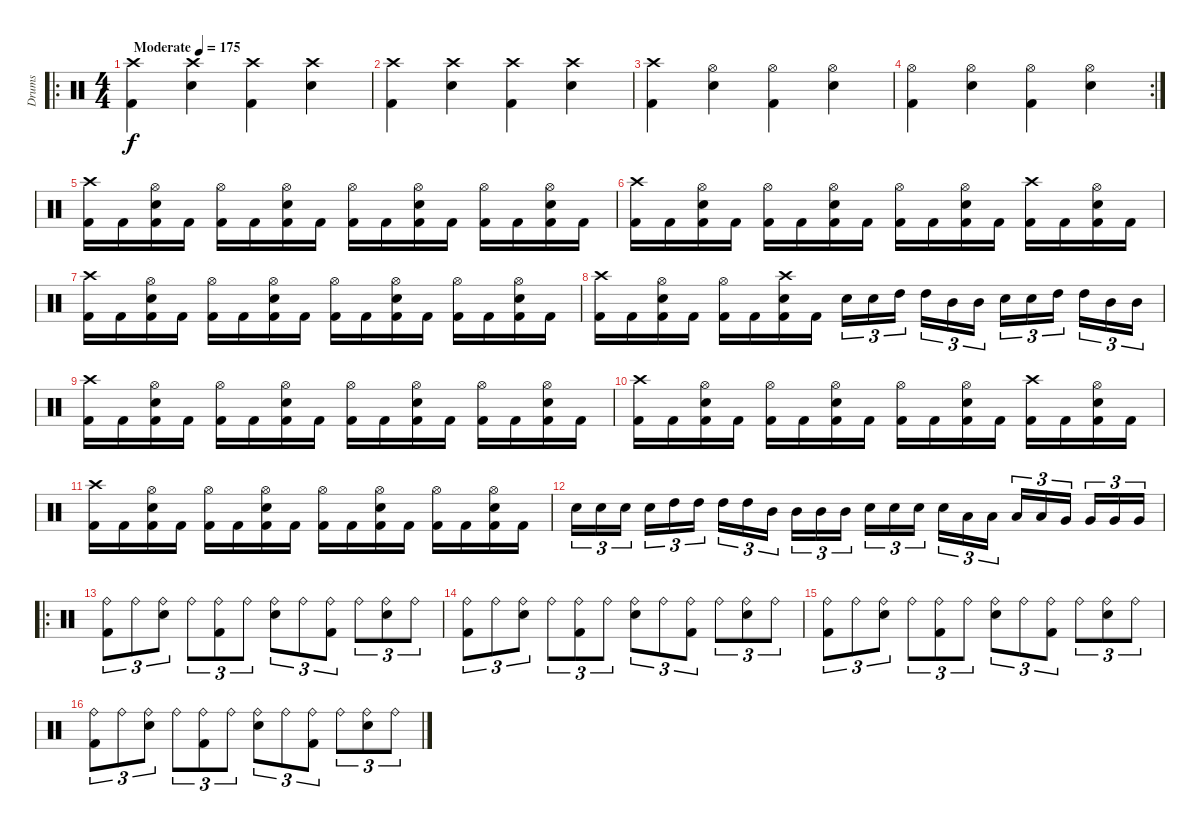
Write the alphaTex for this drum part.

\track ("Drums" "Drums") {instrument percussion}
\staff {score}
\articulation defaults
\ro
\ts (4 4)
\tempo (175 "Moderate")
\clef neutral
\ks c
("Kick (hit) 2" "Crash high (hit)").4{dy f} ("Snare (hit) 2" "Crash high (hit)").4 ("Kick (hit) 2" "Crash high (hit)").4 ("Snare (hit) 2" "Crash high (hit)").4 |
("Kick (hit) 2" "Crash high (hit)").4 ("Snare (hit) 2" "Crash high (hit)").4 ("Kick (hit) 2" "Crash high (hit)").4 ("Snare (hit) 2" "Crash high (hit)").4 |
("Kick (hit) 2" "Crash high (hit)").4 ("Snare (hit) 2" "Hi-Hat (open)").4 ("Kick (hit) 2" "Hi-Hat (open)").4 ("Snare (hit) 2" "Hi-Hat (open)").4 |
\rc 2
("Kick (hit) 2" "Hi-Hat (open)").4 ("Snare (hit) 2" "Hi-Hat (open)").4 ("Kick (hit) 2" "Hi-Hat (open)").4 ("Snare (hit) 2" "Hi-Hat (open)").4 |
("Kick (hit) 2" "Crash high (hit)").16 "Kick (hit) 2".16 ("Kick (hit) 2" "Snare (hit) 2" "Hi-Hat (open)").16 "Kick (hit) 2".16 ("Kick (hit) 2" "Hi-Hat (open)").16 "Kick (hit) 2".16 ("Kick (hit) 2" "Snare (hit) 2" "Hi-Hat (open)").16 "Kick (hit) 2".16 ("Kick (hit) 2" "Hi-Hat (open)").16 "Kick (hit) 2".16 ("Kick (hit) 2" "Snare (hit) 2" "Hi-Hat (open)").16 "Kick (hit) 2".16 ("Kick (hit) 2" "Hi-Hat (open)").16 "Kick (hit) 2".16 ("Kick (hit) 2" "Snare (hit) 2" "Hi-Hat (open)").16 "Kick (hit) 2".16 |
("Kick (hit) 2" "Crash high (hit)").16 "Kick (hit) 2".16 ("Kick (hit) 2" "Snare (hit) 2" "Hi-Hat (open)").16 "Kick (hit) 2".16 ("Kick (hit) 2" "Hi-Hat (open)").16 "Kick (hit) 2".16 ("Kick (hit) 2" "Snare (hit) 2" "Hi-Hat (open)").16 "Kick (hit) 2".16 ("Kick (hit) 2" "Hi-Hat (open)").16 "Kick (hit) 2".16 ("Kick (hit) 2" "Snare (hit) 2" "Hi-Hat (open)").16 "Kick (hit) 2".16 ("Kick (hit) 2" "Crash high (hit)").16 "Kick (hit) 2".16 ("Kick (hit) 2" "Snare (hit) 2" "Hi-Hat (open)").16 "Kick (hit) 2".16 |
("Kick (hit) 2" "Crash high (hit)").16 "Kick (hit) 2".16 ("Kick (hit) 2" "Snare (hit) 2" "Hi-Hat (open)").16 "Kick (hit) 2".16 ("Kick (hit) 2" "Hi-Hat (open)").16 "Kick (hit) 2".16 ("Kick (hit) 2" "Snare (hit) 2" "Hi-Hat (open)").16 "Kick (hit) 2".16 ("Kick (hit) 2" "Hi-Hat (open)").16 "Kick (hit) 2".16 ("Kick (hit) 2" "Snare (hit) 2" "Hi-Hat (open)").16 "Kick (hit) 2".16 ("Kick (hit) 2" "Hi-Hat (open)").16 "Kick (hit) 2".16 ("Kick (hit) 2" "Snare (hit) 2" "Hi-Hat (open)").16 "Kick (hit) 2".16 |
("Kick (hit) 2" "Crash high (hit)").16 "Kick (hit) 2".16 ("Kick (hit) 2" "Snare (hit) 2" "Hi-Hat (open)").16 "Kick (hit) 2".16 ("Kick (hit) 2" "Hi-Hat (open)").16 "Kick (hit) 2".16 ("Kick (hit) 2" "Snare (hit) 2" "Crash high (hit)").16 "Kick (hit) 2".16 "Snare (hit) 2".16{tu (3 2)} "Snare (hit) 2".16{tu (3 2)} "High Tom (hit)".16{tu (3 2) beam splitsecondary} "High Tom (hit)".16{tu (3 2)} "Mid Tom (hit)".16{tu (3 2)} "Mid Tom (hit)".16{tu (3 2)} "Snare (hit) 2".16{tu (3 2)} "Snare (hit) 2".16{tu (3 2)} "High Tom (hit)".16{tu (3 2) beam splitsecondary} "High Tom (hit)".16{tu (3 2)} "Mid Tom (hit)".16{tu (3 2)} "Mid Tom (hit)".16{tu (3 2)} |
("Kick (hit) 2" "Crash high (hit)").16 "Kick (hit) 2".16 ("Kick (hit) 2" "Snare (hit) 2" "Hi-Hat (open)").16 "Kick (hit) 2".16 ("Kick (hit) 2" "Hi-Hat (open)").16 "Kick (hit) 2".16 ("Kick (hit) 2" "Snare (hit) 2" "Hi-Hat (open)").16 "Kick (hit) 2".16 ("Kick (hit) 2" "Hi-Hat (open)").16 "Kick (hit) 2".16 ("Kick (hit) 2" "Snare (hit) 2" "Hi-Hat (open)").16 "Kick (hit) 2".16 ("Kick (hit) 2" "Hi-Hat (open)").16 "Kick (hit) 2".16 ("Kick (hit) 2" "Snare (hit) 2" "Hi-Hat (open)").16 "Kick (hit) 2".16 |
("Kick (hit) 2" "Crash high (hit)").16 "Kick (hit) 2".16 ("Kick (hit) 2" "Snare (hit) 2" "Hi-Hat (open)").16 "Kick (hit) 2".16 ("Kick (hit) 2" "Hi-Hat (open)").16 "Kick (hit) 2".16 ("Kick (hit) 2" "Snare (hit) 2" "Hi-Hat (open)").16 "Kick (hit) 2".16 ("Kick (hit) 2" "Hi-Hat (open)").16 "Kick (hit) 2".16 ("Kick (hit) 2" "Snare (hit) 2" "Hi-Hat (open)").16 "Kick (hit) 2".16 ("Kick (hit) 2" "Crash high (hit)").16 "Kick (hit) 2".16 ("Kick (hit) 2" "Snare (hit) 2" "Hi-Hat (open)").16 "Kick (hit) 2".16 |
("Kick (hit) 2" "Crash high (hit)").16 "Kick (hit) 2".16 ("Kick (hit) 2" "Snare (hit) 2" "Hi-Hat (open)").16 "Kick (hit) 2".16 ("Kick (hit) 2" "Hi-Hat (open)").16 "Kick (hit) 2".16 ("Kick (hit) 2" "Snare (hit) 2" "Hi-Hat (open)").16 "Kick (hit) 2".16 ("Kick (hit) 2" "Hi-Hat (open)").16 "Kick (hit) 2".16 ("Kick (hit) 2" "Snare (hit) 2" "Hi-Hat (open)").16 "Kick (hit) 2".16 ("Kick (hit) 2" "Hi-Hat (open)").16 "Kick (hit) 2".16 ("Kick (hit) 2" "Snare (hit) 2" "Hi-Hat (open)").16 "Kick (hit) 2".16 |
"Snare (hit) 2".16{tu (3 2)} "Snare (hit) 2".16{tu (3 2)} "Snare (hit) 2".16{tu (3 2) beam splitsecondary} "Snare (hit) 2".16{tu (3 2)} "High Tom (hit)".16{tu (3 2)} "High Tom (hit)".16{tu (3 2)} "High Tom (hit)".16{tu (3 2)} "High Tom (hit)".16{tu (3 2)} "Mid Tom (hit)".16{tu (3 2) beam splitsecondary} "Mid Tom (hit)".16{tu (3 2)} "Mid Tom (hit)".16{tu (3 2)} "Mid Tom (hit)".16{tu (3 2)} "Snare (hit) 2".16{tu (3 2)} "Snare (hit) 2".16{tu (3 2)} "Snare (hit) 2".16{tu (3 2) beam splitsecondary} "Snare (hit) 2".16{tu (3 2)} "Low Tom (hit)".16{tu (3 2)} "Low Tom (hit)".16{tu (3 2)} "Low Tom (hit)".16{tu (3 2)} "Low Tom (hit)".16{tu (3 2)} "Very Low Tom (hit)".16{tu (3 2) beam splitsecondary} "Very Low Tom (hit)".16{tu (3 2)} "Very Low Tom (hit)".16{tu (3 2)} "Very Low Tom (hit)".16{tu (3 2)} |
\ro
("Kick (hit) 2" "Ride (bell)").8{tu (3 2)} "Ride (bell)".8{tu (3 2)} ("Snare (hit) 2" "Ride (bell)").8{tu (3 2)} "Ride (bell)".8{tu (3 2)} ("Kick (hit) 2" "Ride (bell)").8{tu (3 2)} "Ride (bell)".8{tu (3 2)} ("Snare (hit) 2" "Ride (bell)").8{tu (3 2)} "Ride (bell)".8{tu (3 2)} ("Kick (hit) 2" "Ride (bell)").8{tu (3 2)} "Ride (bell)".8{tu (3 2)} ("Snare (hit) 2" "Ride (bell)").8{tu (3 2)} "Ride (bell)".8{tu (3 2)} |
("Kick (hit) 2" "Ride (bell)").8{tu (3 2)} "Ride (bell)".8{tu (3 2)} ("Snare (hit) 2" "Ride (bell)").8{tu (3 2)} "Ride (bell)".8{tu (3 2)} ("Kick (hit) 2" "Ride (bell)").8{tu (3 2)} "Ride (bell)".8{tu (3 2)} ("Snare (hit) 2" "Ride (bell)").8{tu (3 2)} "Ride (bell)".8{tu (3 2)} ("Kick (hit) 2" "Ride (bell)").8{tu (3 2)} "Ride (bell)".8{tu (3 2)} ("Snare (hit) 2" "Ride (bell)").8{tu (3 2)} "Ride (bell)".8{tu (3 2)} |
("Kick (hit) 2" "Ride (bell)").8{tu (3 2)} "Ride (bell)".8{tu (3 2)} ("Snare (hit) 2" "Ride (bell)").8{tu (3 2)} "Ride (bell)".8{tu (3 2)} ("Kick (hit) 2" "Ride (bell)").8{tu (3 2)} "Ride (bell)".8{tu (3 2)} ("Snare (hit) 2" "Ride (bell)").8{tu (3 2)} "Ride (bell)".8{tu (3 2)} ("Kick (hit) 2" "Ride (bell)").8{tu (3 2)} "Ride (bell)".8{tu (3 2)} ("Snare (hit) 2" "Ride (bell)").8{tu (3 2)} "Ride (bell)".8{tu (3 2)} |
("Kick (hit) 2" "Ride (bell)").8{tu (3 2)} "Ride (bell)".8{tu (3 2)} ("Snare (hit) 2" "Ride (bell)").8{tu (3 2)} "Ride (bell)".8{tu (3 2)} ("Kick (hit) 2" "Ride (bell)").8{tu (3 2)} "Ride (bell)".8{tu (3 2)} ("Snare (hit) 2" "Ride (bell)").8{tu (3 2)} "Ride (bell)".8{tu (3 2)} ("Kick (hit) 2" "Ride (bell)").8{tu (3 2)} "Ride (bell)".8{tu (3 2)} ("Snare (hit) 2" "Ride (bell)").8{tu (3 2)} "Ride (bell)".8{tu (3 2)}
